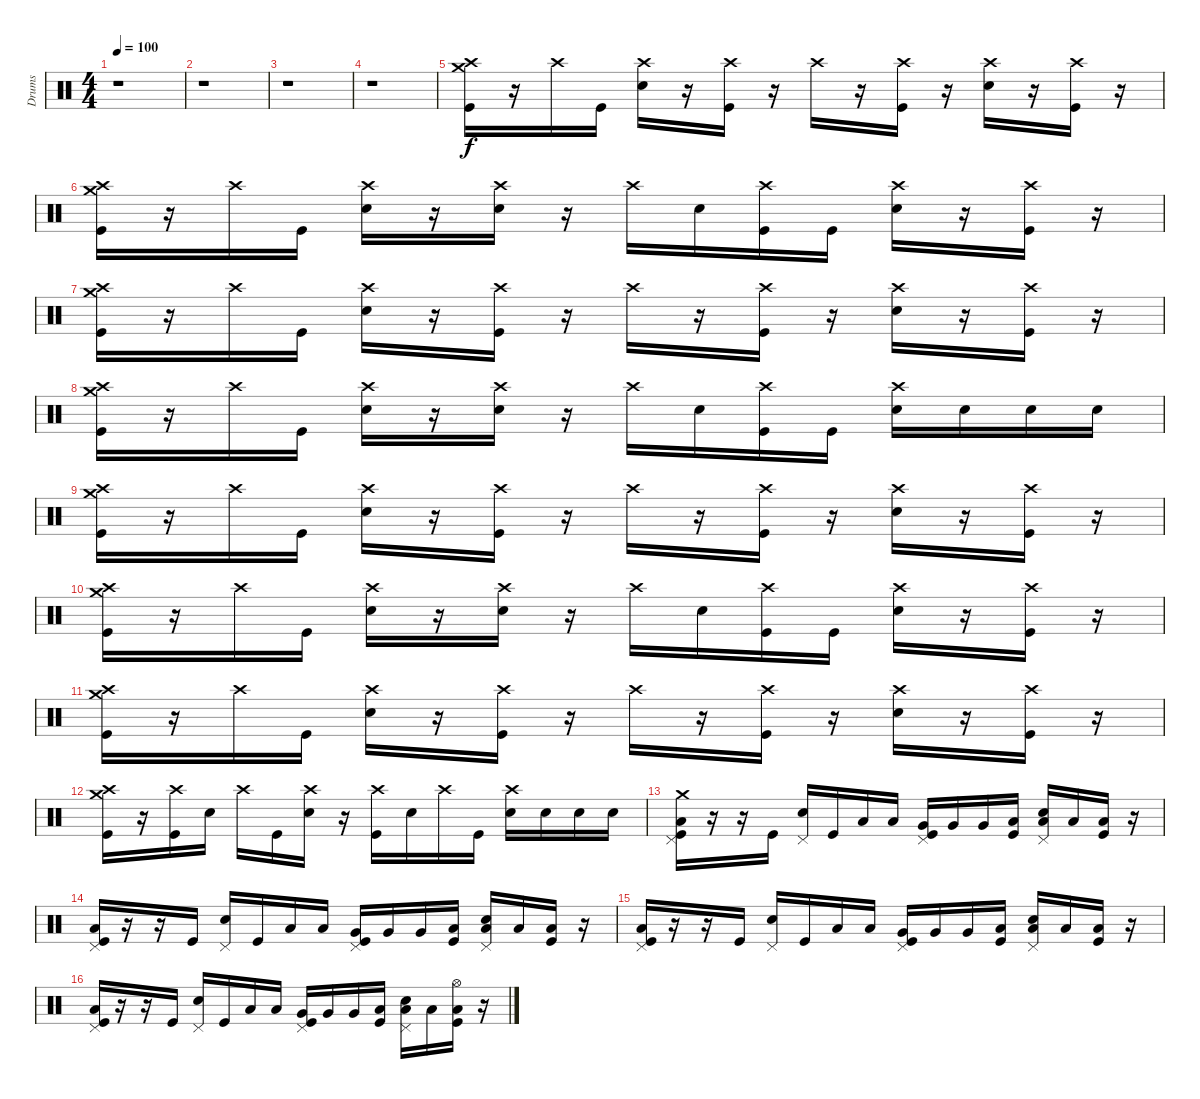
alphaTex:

\track ("Drums" "Drums") {instrument percussion}
\staff {score}
\articulation defaults
\ts (4 4)
\tempo 100
\clef neutral
\ks c
r.1{dy f} |
r.1 |
r.1 |
r.1 |
("Crash medium (hit)" "Crash high (hit)" "Kick (hit)").16 r.16 "Crash high (hit)".16 "Kick (hit)".16 ("Crash high (hit)" "Snare (hit) 2").16 r.16 ("Crash high (hit)" "Kick (hit)").16 r.16 "Crash high (hit)".16 r.16 ("Crash high (hit)" "Kick (hit)").16 r.16 ("Crash high (hit)" "Snare (hit) 2").16 r.16 ("Crash high (hit)" "Kick (hit)").16 r.16 |
("Crash medium (hit)" "Crash high (hit)" "Kick (hit)").16 r.16 "Crash high (hit)".16 "Kick (hit)".16 ("Crash high (hit)" "Snare (hit) 2").16 r.16 ("Crash high (hit)" "Snare (hit) 2").16 r.16 "Crash high (hit)".16 "Snare (hit) 2".16 ("Crash high (hit)" "Kick (hit)").16 "Kick (hit)".16 ("Crash high (hit)" "Snare (hit) 2").16 r.16 ("Crash high (hit)" "Kick (hit)").16 r.16 |
("Crash medium (hit)" "Crash high (hit)" "Kick (hit)").16 r.16 "Crash high (hit)".16 "Kick (hit)".16 ("Crash high (hit)" "Snare (hit) 2").16 r.16 ("Crash high (hit)" "Kick (hit)").16 r.16 "Crash high (hit)".16 r.16 ("Crash high (hit)" "Kick (hit)").16 r.16 ("Crash high (hit)" "Snare (hit) 2").16 r.16 ("Crash high (hit)" "Kick (hit)").16 r.16 |
("Crash medium (hit)" "Crash high (hit)" "Kick (hit)").16 r.16 "Crash high (hit)".16 "Kick (hit)".16 ("Crash high (hit)" "Snare (hit) 2").16 r.16 ("Crash high (hit)" "Snare (hit) 2").16 r.16 "Crash high (hit)".16 "Snare (hit) 2".16 ("Crash high (hit)" "Kick (hit)").16 "Kick (hit)".16 ("Crash high (hit)" "Snare (hit) 2").16 "Snare (hit) 2".16 "Snare (hit) 2".16 "Snare (hit) 2".16 |
("Crash medium (hit)" "Crash high (hit)" "Kick (hit)").16 r.16 "Crash high (hit)".16 "Kick (hit)".16 ("Crash high (hit)" "Snare (hit) 2").16 r.16 ("Crash high (hit)" "Kick (hit)").16 r.16 "Crash high (hit)".16 r.16 ("Crash high (hit)" "Kick (hit)").16 r.16 ("Crash high (hit)" "Snare (hit) 2").16 r.16 ("Crash high (hit)" "Kick (hit)").16 r.16 |
("Crash medium (hit)" "Crash high (hit)" "Kick (hit)").16 r.16 "Crash high (hit)".16 "Kick (hit)".16 ("Crash high (hit)" "Snare (hit) 2").16 r.16 ("Crash high (hit)" "Snare (hit) 2").16 r.16 "Crash high (hit)".16 "Snare (hit) 2".16 ("Crash high (hit)" "Kick (hit)").16 "Kick (hit)".16 ("Crash high (hit)" "Snare (hit) 2").16 r.16 ("Crash high (hit)" "Kick (hit)").16 r.16 |
("Crash medium (hit)" "Crash high (hit)" "Kick (hit)").16 r.16 "Crash high (hit)".16 "Kick (hit)".16 ("Crash high (hit)" "Snare (hit) 2").16 r.16 ("Crash high (hit)" "Kick (hit)").16 r.16 "Crash high (hit)".16 r.16 ("Crash high (hit)" "Kick (hit)").16 r.16 ("Crash high (hit)" "Snare (hit) 2").16 r.16 ("Crash high (hit)" "Kick (hit)").16 r.16 |
("Crash medium (hit)" "Crash high (hit)" "Kick (hit)").16 r.16 ("Crash high (hit)" "Kick (hit)").16 "Snare (hit) 2".16 "Crash high (hit)".16 "Kick (hit)".16 ("Crash high (hit)" "Snare (hit) 2").16 r.16 ("Crash high (hit)" "Kick (hit)").16 "Snare (hit) 2".16 "Crash high (hit)".16 "Kick (hit)".16 ("Crash high (hit)" "Snare (hit) 2").16 "Snare (hit) 2".16 "Snare (hit) 2".16 "Snare (hit) 2".16 |
("Crash medium (hit)" "Pedal Hi-Hat (hit)" "Low Floor Tom (hit)" "Kick (hit)").16 r.16 r.16 "Kick (hit)".16 ("Pedal Hi-Hat (hit)" "Snare (hit) 2").16 "Kick (hit)".16 "Low Tom (hit)".16 "Low Tom (hit)".16 ("Pedal Hi-Hat (hit)" "Very Low Tom (hit)" "Kick (hit)").16 "Very Low Tom (hit)".16 "Very Low Tom (hit)".16 ("Low Floor Tom (hit)" "Kick (hit)").16 ("Pedal Hi-Hat (hit)" "Low Floor Tom (hit)" "Snare (hit) 2").16 "Low Floor Tom (hit)".16 ("Low Floor Tom (hit)" "Kick (hit)").16 r.16 |
("Pedal Hi-Hat (hit)" "Low Floor Tom (hit)" "Kick (hit)").16 r.16 r.16 "Kick (hit)".16 ("Pedal Hi-Hat (hit)" "Snare (hit) 2").16 "Kick (hit)".16 "Low Tom (hit)".16 "Low Tom (hit)".16 ("Pedal Hi-Hat (hit)" "Very Low Tom (hit)" "Kick (hit)").16 "Very Low Tom (hit)".16 "Very Low Tom (hit)".16 ("Low Floor Tom (hit)" "Kick (hit)").16 ("Pedal Hi-Hat (hit)" "Low Floor Tom (hit)" "Snare (hit) 2").16 "Low Floor Tom (hit)".16 ("Low Floor Tom (hit)" "Kick (hit)").16 r.16 |
("Pedal Hi-Hat (hit)" "Low Floor Tom (hit)" "Kick (hit)").16 r.16 r.16 "Kick (hit)".16 ("Pedal Hi-Hat (hit)" "Snare (hit) 2").16 "Kick (hit)".16 "Low Tom (hit)".16 "Low Tom (hit)".16 ("Pedal Hi-Hat (hit)" "Very Low Tom (hit)" "Kick (hit)").16 "Very Low Tom (hit)".16 "Very Low Tom (hit)".16 ("Low Floor Tom (hit)" "Kick (hit)").16 ("Pedal Hi-Hat (hit)" "Low Floor Tom (hit)" "Snare (hit) 2").16 "Low Floor Tom (hit)".16 ("Low Floor Tom (hit)" "Kick (hit)").16 r.16 |
("Pedal Hi-Hat (hit)" "Low Floor Tom (hit)" "Kick (hit)").16 r.16 r.16 "Kick (hit)".16 ("Pedal Hi-Hat (hit)" "Snare (hit) 2").16 "Kick (hit)".16 "Low Tom (hit)".16 "Low Tom (hit)".16 ("Pedal Hi-Hat (hit)" "Very Low Tom (hit)" "Kick (hit)").16 "Very Low Tom (hit)".16 "Very Low Tom (hit)".16 ("Low Floor Tom (hit)" "Kick (hit)").16 ("Pedal Hi-Hat (hit)" "Low Floor Tom (hit)" "Snare (hit) 2").16 "Low Floor Tom (hit)".16 ("Hi-Hat (open)" "Low Floor Tom (hit)" "Kick (hit)").16 r.16
